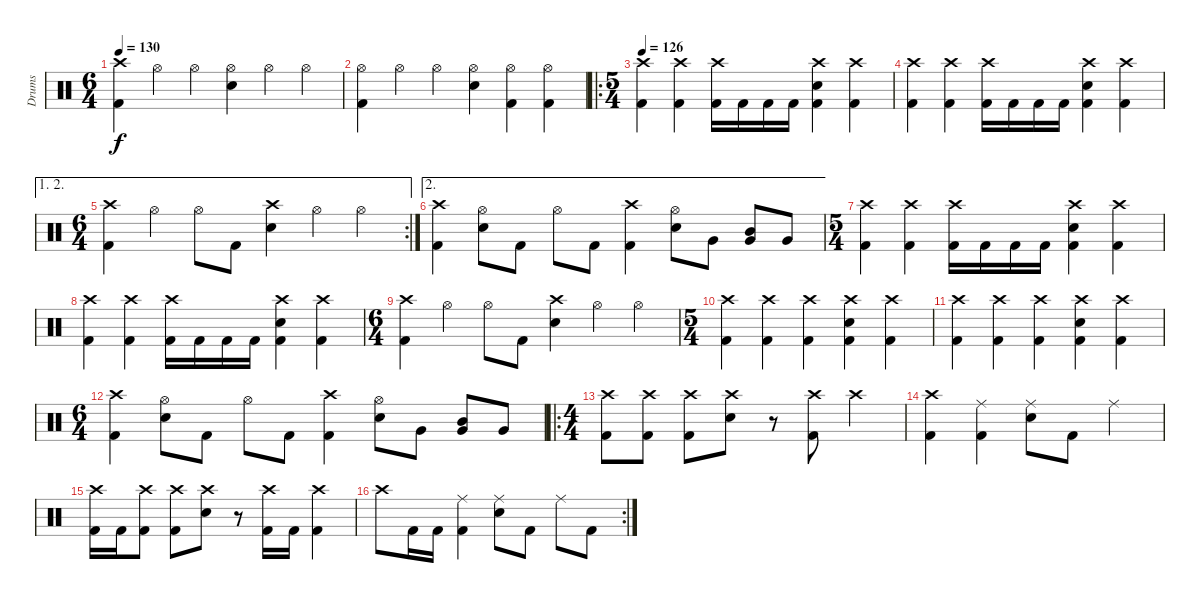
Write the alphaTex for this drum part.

\track ("Drums" "Drums") {instrument percussion}
\staff {score}
\articulation defaults
\ts (6 4)
\tempo 130
\clef neutral
\ks c
("Crash high (hit)" "Kick (hit) 2").4{dy f} "Hi-Hat (open)".4 "Hi-Hat (open)".4 ("Hi-Hat (open)" "Snare (hit) 2").4 "Hi-Hat (open)".4 "Hi-Hat (open)".4 |
("Hi-Hat (open)" "Kick (hit) 2").4 "Hi-Hat (open)".4 "Hi-Hat (open)".4 ("Hi-Hat (open)" "Snare (hit) 2").4 ("Hi-Hat (open)" "Kick (hit) 2").4 ("Hi-Hat (open)" "Kick (hit) 2").4 |
\ro
\ts (5 4)
\tempo 126
("Crash high (hit)" "Kick (hit) 2").4 ("Crash high (hit)" "Kick (hit) 2").4 ("Crash high (hit)" "Kick (hit) 2").16 "Kick (hit) 2".16 "Kick (hit) 2".16 "Kick (hit) 2".16 ("Crash high (hit)" "Snare (hit) 2" "Kick (hit) 2").4 ("Crash high (hit)" "Kick (hit) 2").4 |
("Crash high (hit)" "Kick (hit) 2").4 ("Crash high (hit)" "Kick (hit) 2").4 ("Crash high (hit)" "Kick (hit) 2").16 "Kick (hit) 2".16 "Kick (hit) 2".16 "Kick (hit) 2".16 ("Crash high (hit)" "Snare (hit) 2" "Kick (hit) 2").4 ("Crash high (hit)" "Kick (hit) 2").4 |
\ae (1 2)
\rc 2
\ts (6 4)
("Crash high (hit)" "Kick (hit) 2").4 "Hi-Hat (open)".4 "Hi-Hat (open)".8 "Kick (hit) 2".8 ("Crash high (hit)" "Snare (hit) 2").4 "Hi-Hat (open)".4 "Hi-Hat (open)".4 |
\ae 2
("Crash high (hit)" "Kick (hit) 2").4 ("Hi-Hat (open)" "Snare (hit) 2").8 "Kick (hit) 2".8 "Hi-Hat (open)".8 "Kick (hit) 2".8 ("Crash high (hit)" "Kick (hit) 2").4 ("Hi-Hat (open)" "Snare (hit) 2").8 "Very Low Tom (hit)".8 ("Mid Tom (hit)" "Very Low Tom (hit)").8 "Very Low Tom (hit)".8 |
\ts (5 4)
("Crash high (hit)" "Kick (hit) 2").4 ("Crash high (hit)" "Kick (hit) 2").4 ("Crash high (hit)" "Kick (hit) 2").16 "Kick (hit) 2".16 "Kick (hit) 2".16 "Kick (hit) 2".16 ("Crash high (hit)" "Snare (hit) 2" "Kick (hit) 2").4 ("Crash high (hit)" "Kick (hit) 2").4 |
("Crash high (hit)" "Kick (hit) 2").4 ("Crash high (hit)" "Kick (hit) 2").4 ("Crash high (hit)" "Kick (hit) 2").16 "Kick (hit) 2".16 "Kick (hit) 2".16 "Kick (hit) 2".16 ("Crash high (hit)" "Snare (hit) 2" "Kick (hit) 2").4 ("Crash high (hit)" "Kick (hit) 2").4 |
\ts (6 4)
("Crash high (hit)" "Kick (hit) 2").4 "Hi-Hat (open)".4 "Hi-Hat (open)".8 "Kick (hit) 2".8 ("Crash high (hit)" "Snare (hit) 2").4 "Hi-Hat (open)".4 "Hi-Hat (open)".4 |
\ts (5 4)
("Crash high (hit)" "Kick (hit) 2").4 ("Crash high (hit)" "Kick (hit) 2").4 ("Crash high (hit)" "Kick (hit) 2").4 ("Crash high (hit)" "Snare (hit) 2" "Kick (hit) 2").4 ("Crash high (hit)" "Kick (hit) 2").4 |
("Crash high (hit)" "Kick (hit) 2").4 ("Crash high (hit)" "Kick (hit) 2").4 ("Crash high (hit)" "Kick (hit) 2").4 ("Crash high (hit)" "Snare (hit) 2" "Kick (hit) 2").4 ("Crash high (hit)" "Kick (hit) 2").4 |
\ts (6 4)
("Crash high (hit)" "Kick (hit) 2").4 ("Hi-Hat (open)" "Snare (hit) 2").8 "Kick (hit) 2".8 "Hi-Hat (open)".8 "Kick (hit) 2".8 ("Crash high (hit)" "Kick (hit) 2").4 ("Hi-Hat (open)" "Snare (hit) 2").8 "Very Low Tom (hit)".8 ("Mid Tom (hit)" "Very Low Tom (hit)").8 "Very Low Tom (hit)".8 |
\ro
\ts (4 4)
("Crash high (hit)" "Kick (hit) 2").8 ("Crash high (hit)" "Kick (hit) 2").8 ("Crash high (hit)" "Kick (hit) 2").8 ("Crash high (hit)" "Snare (hit) 2").8 r.8 ("Crash high (hit)" "Kick (hit) 2").8 "Crash high (hit)".4 |
("Crash high (hit)" "Kick (hit) 2").4 ("Ride (middle)" "Kick (hit) 2").4 ("Ride (middle)" "Snare (hit) 2").8 "Kick (hit) 2".8 "Ride (middle)".4 |
("Crash high (hit)" "Kick (hit) 2").16 "Kick (hit) 2".16 ("Crash high (hit)" "Kick (hit) 2").8 ("Crash high (hit)" "Kick (hit) 2").8 ("Crash high (hit)" "Snare (hit) 2").8 r.8 ("Crash high (hit)" "Kick (hit) 2").16 "Kick (hit) 2".16 ("Crash high (hit)" "Kick (hit) 2").4 |
\rc 2 "Crash high (hit)".8 "Kick (hit) 2".16 "Kick (hit) 2".16
("Ride (middle)" "Kick (hit) 2").4 ("Ride (middle)" "Snare (hit) 2").8 "Kick (hit) 2".8 "Ride (middle)".8 "Kick (hit) 2".8
